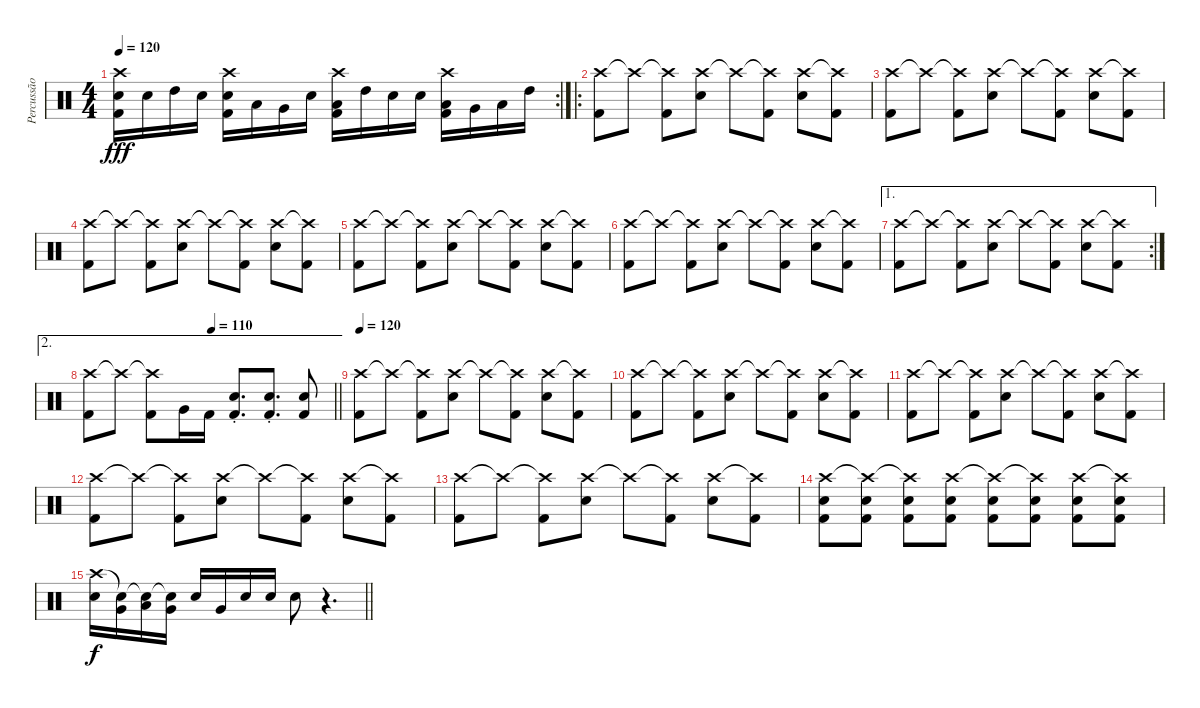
\track ("Percussão" "Percussão") {instrument percussion}
\staff {score}
\articulation defaults
\rc 2
\ts (4 4)
\tempo 120
\clef neutral
\ks c
("Crash high (hit)" "Electric Snare (hit)" "Kick (hit) 2").16{dy fff} "Electric Snare (hit)".16 "High Tom (hit)".16 "Electric Snare (hit)".16 ("Crash high (hit)" "Electric Snare (hit)" "Kick (hit) 2").16 "Low Tom (hit)".16 "Very Low Tom (hit)".16 "Electric Snare (hit)".16 ("Crash high (hit)" "Low Floor Tom (hit)" "Kick (hit) 2").16 "High Tom (hit)".16 "Electric Snare (hit)".16 "Electric Snare (hit)".16 ("Crash high (hit)" "Low Tom (hit)" "Kick (hit) 2").16 "Very Low Tom (hit)".16 "Low Floor Tom (hit)".16 "High Tom (hit)".16 |
\ro
("Crash high (hit)" "Kick (hit) 2").8 "Crash high (hit)"{t}.8 ("Crash high (hit)"{t} "Kick (hit) 2").8 ("Crash high (hit)" "Electric Snare (hit)").8 "Crash high (hit)"{t}.8 ("Crash high (hit)"{t} "Kick (hit) 2").8 ("Crash high (hit)" "Electric Snare (hit)").8 ("Crash high (hit)"{t} "Kick (hit) 2").8 |
("Crash high (hit)" "Kick (hit) 2").8 "Crash high (hit)"{t}.8 ("Crash high (hit)"{t} "Kick (hit) 2").8 ("Crash high (hit)" "Electric Snare (hit)").8 "Crash high (hit)"{t}.8 ("Crash high (hit)"{t} "Kick (hit) 2").8 ("Crash high (hit)" "Electric Snare (hit)").8 ("Crash high (hit)"{t} "Kick (hit) 2").8 |
("Crash high (hit)" "Kick (hit) 2").8 "Crash high (hit)"{t}.8 ("Crash high (hit)"{t} "Kick (hit) 2").8 ("Crash high (hit)" "Electric Snare (hit)").8 "Crash high (hit)"{t}.8 ("Crash high (hit)"{t} "Kick (hit) 2").8 ("Crash high (hit)" "Electric Snare (hit)").8 ("Crash high (hit)"{t} "Kick (hit) 2").8 |
("Crash high (hit)" "Kick (hit) 2").8 "Crash high (hit)"{t}.8 ("Crash high (hit)"{t} "Kick (hit) 2").8 ("Crash high (hit)" "Electric Snare (hit)").8 "Crash high (hit)"{t}.8 ("Crash high (hit)"{t} "Kick (hit) 2").8 ("Crash high (hit)" "Electric Snare (hit)").8 ("Crash high (hit)"{t} "Kick (hit) 2").8 |
("Crash high (hit)" "Kick (hit) 2").8 "Crash high (hit)"{t}.8 ("Crash high (hit)"{t} "Kick (hit) 2").8 ("Crash high (hit)" "Electric Snare (hit)").8 "Crash high (hit)"{t}.8 ("Crash high (hit)"{t} "Kick (hit) 2").8 ("Crash high (hit)" "Electric Snare (hit)").8 ("Crash high (hit)"{t} "Kick (hit) 2").8 |
\ae 1
\rc 2
("Crash high (hit)" "Kick (hit) 2").8 "Crash high (hit)"{t}.8 ("Crash high (hit)"{t} "Kick (hit) 2").8 ("Crash high (hit)" "Electric Snare (hit)").8 "Crash high (hit)"{t}.8 ("Crash high (hit)"{t} "Kick (hit) 2").8 ("Crash high (hit)" "Electric Snare (hit)").8 ("Crash high (hit)"{t} "Kick (hit) 2").8 |
\ae 2
\tempo (110 0.5)
\barLineRight lightlight
("Crash high (hit)" "Kick (hit) 2").8 "Crash high (hit)"{t}.8 ("Crash high (hit)"{t} "Kick (hit) 2").8 "Very Low Tom (hit)".16 "Kick (hit) 2".16 ("Electric Snare (hit)"{st} "Kick (hit) 2").8{d} ("Electric Snare (hit)"{st} "Kick (hit) 2").8{d} ("Electric Snare (hit)" "Kick (hit) 2").8 |
\tempo 120
("Crash high (hit)" "Kick (hit) 2").8 "Crash high (hit)"{t}.8 ("Crash high (hit)"{t} "Kick (hit) 2").8 ("Crash high (hit)" "Electric Snare (hit)").8 "Crash high (hit)"{t}.8 ("Crash high (hit)"{t} "Kick (hit) 2").8 ("Crash high (hit)" "Electric Snare (hit)").8 ("Crash high (hit)"{t} "Kick (hit) 2").8 |
("Crash high (hit)" "Kick (hit) 2").8 "Crash high (hit)"{t}.8 ("Crash high (hit)"{t} "Kick (hit) 2").8 ("Crash high (hit)" "Electric Snare (hit)").8 "Crash high (hit)"{t}.8 ("Crash high (hit)"{t} "Kick (hit) 2").8 ("Crash high (hit)" "Electric Snare (hit)").8 ("Crash high (hit)"{t} "Kick (hit) 2").8 |
("Crash high (hit)" "Kick (hit) 2").8 "Crash high (hit)"{t}.8 ("Crash high (hit)"{t} "Kick (hit) 2").8 ("Crash high (hit)" "Electric Snare (hit)").8 "Crash high (hit)"{t}.8 ("Crash high (hit)"{t} "Kick (hit) 2").8 ("Crash high (hit)" "Electric Snare (hit)").8 ("Crash high (hit)"{t} "Kick (hit) 2").8 |
("Crash high (hit)" "Kick (hit) 2").8 "Crash high (hit)"{t}.8 ("Crash high (hit)"{t} "Kick (hit) 2").8 ("Crash high (hit)" "Electric Snare (hit)").8 "Crash high (hit)"{t}.8 ("Crash high (hit)"{t} "Kick (hit) 2").8 ("Crash high (hit)" "Electric Snare (hit)").8 ("Crash high (hit)"{t} "Kick (hit) 2").8 |
("Crash high (hit)" "Kick (hit) 2").8 "Crash high (hit)"{t}.8 ("Crash high (hit)"{t} "Kick (hit) 2").8 ("Crash high (hit)" "Electric Snare (hit)").8 "Crash high (hit)"{t}.8 ("Crash high (hit)"{t} "Kick (hit) 2").8 ("Crash high (hit)" "Electric Snare (hit)").8 ("Crash high (hit)"{t} "Kick (hit) 2").8 |
("Crash high (hit)" "Electric Snare (hit)" "Kick (hit) 2").8 ("Crash high (hit)"{t} "Electric Snare (hit)" "Kick (hit) 2").8 ("Crash high (hit)"{t} "Electric Snare (hit)" "Kick (hit) 2").8 ("Crash high (hit)" "Electric Snare (hit)" "Kick (hit) 2").8 ("Crash high (hit)"{t} "Electric Snare (hit)" "Kick (hit) 2").8 ("Crash high (hit)"{t} "Electric Snare (hit)" "Kick (hit) 2").8 ("Crash high (hit)" "Electric Snare (hit)" "Kick (hit) 2").8 ("Crash high (hit)"{t} "Electric Snare (hit)" "Kick (hit) 2").8 |
\barLineRight lightlight
("Crash high (hit)" "Electric Snare (hit)").16{dy f} ("Snare (hit)"{t} "Very Low Tom (hit)").16 ("Snare (hit)"{t} "Low Floor Tom (hit)").16 ("Snare (hit)"{t} "Very Low Tom (hit)").16 "Electric Snare (hit)".16 "Very Low Tom (hit)".16 "Electric Snare (hit)".16 "Electric Snare (hit)".16 "Electric Snare (hit)".8 r.4{d}
